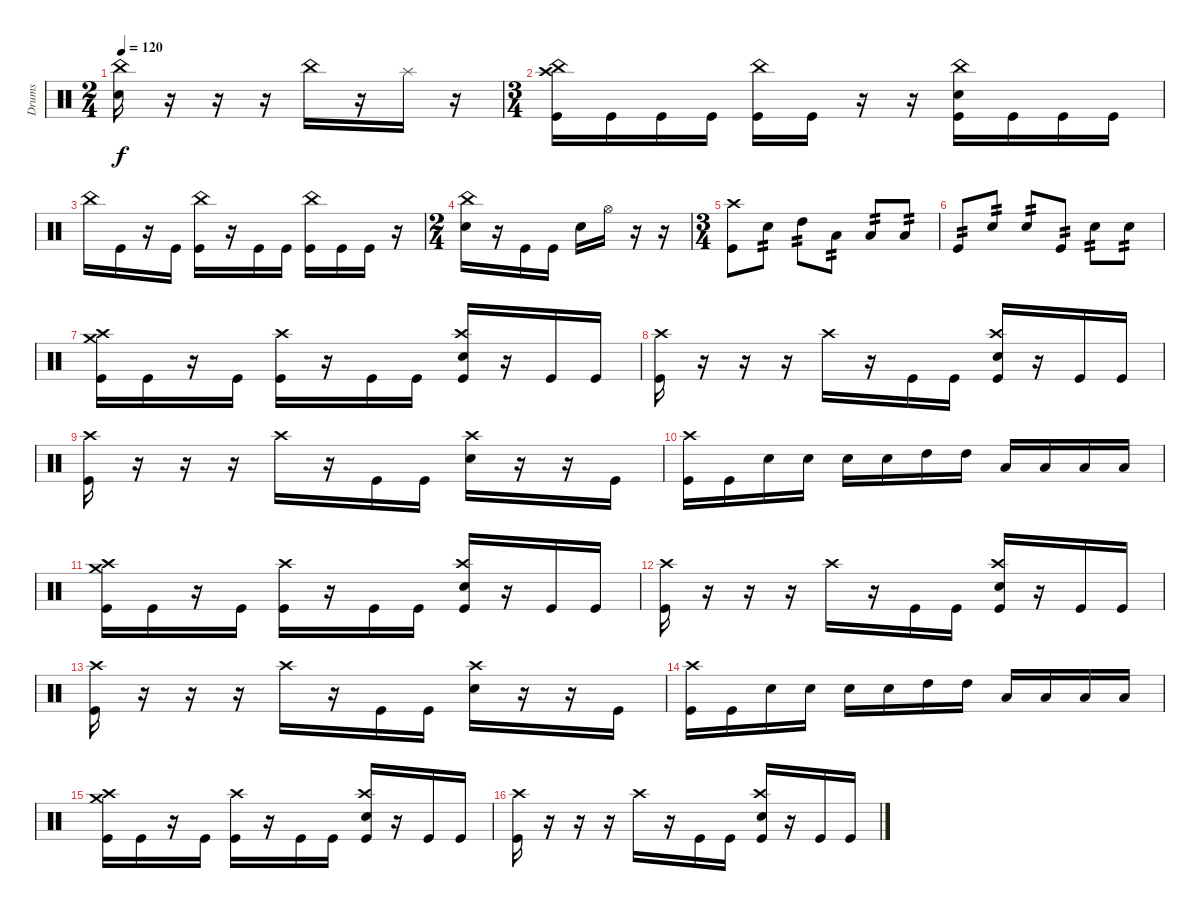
\track ("Drums" "Drums") {instrument percussion}
\staff {score}
\articulation defaults
\ts (2 4)
\tempo 120
\clef neutral
\ks c
("China (hit)" "Snare (hit) 2").16{dy f} r.16 r.16 r.16 "China (hit)".16 r.16 "Splash (hit)".16 r.16 |
\ts (3 4)
("Crash high (hit)" "China (hit)" "Kick (hit)").16 "Kick (hit)".16 "Kick (hit)".16 "Kick (hit)".16 ("China (hit)" "Kick (hit)").16 "Kick (hit)".16 r.16 r.16 ("China (hit)" "Snare (hit) 2" "Kick (hit)").16 "Kick (hit)".16 "Kick (hit)".16 "Kick (hit)".16 |
"China (hit)".16 "Kick (hit)".16 r.16 "Kick (hit)".16 ("China (hit)" "Kick (hit)").16 r.16 "Kick (hit)".16 "Kick (hit)".16 ("China (hit)" "Kick (hit)").16 "Kick (hit)".16 "Kick (hit)".16 r.16 |
\ts (2 4)
("China (hit)" "Snare (hit) 2").16 r.16 "Kick (hit)".16 "Kick (hit)".16 "Snare (hit) 2".16 "Hi-Hat (open)".16 r.16 r.16 |
\ts (3 4)
("Crash high (hit)" "Kick (hit)").8 "Snare (hit) 2".8{tp 2} "High Tom (hit)".8{tp 2} "Low Tom (hit)".8{tp 2} "Low Tom (hit)".8{tp 2} "Low Tom (hit)".8{tp 2} |
"Kick (hit)".8{tp 2} "Snare (hit) 2".8{tp 2} "Snare (hit) 2".8{tp 2} "Kick (hit)".8{tp 2} "Snare (hit) 2".8{tp 2} "Snare (hit) 2".8{tp 2} |
("Crash high (hit)" "Crash medium (hit)" "Kick (hit)").16 "Kick (hit)".16 r.16 "Kick (hit)".16 ("Crash high (hit)" "Kick (hit)").16 r.16 "Kick (hit)".16 "Kick (hit)".16 ("Crash high (hit)" "Snare (hit) 2" "Kick (hit)").16 r.16 "Kick (hit)".16 "Kick (hit)".16 |
("Crash high (hit)" "Kick (hit)").16 r.16 r.16 r.16 "Crash high (hit)".16 r.16 "Kick (hit)".16 "Kick (hit)".16 ("Crash high (hit)" "Snare (hit) 2" "Kick (hit)").16 r.16 "Kick (hit)".16 "Kick (hit)".16 |
("Crash high (hit)" "Kick (hit)").16 r.16 r.16 r.16 "Crash high (hit)".16 r.16 "Kick (hit)".16 "Kick (hit)".16 ("Crash high (hit)" "Snare (hit) 2").16 r.16 r.16 "Kick (hit)".16 |
("Crash high (hit)" "Kick (hit)").16 "Kick (hit)".16 "Snare (hit) 2".16 "Snare (hit) 2".16 "Snare (hit) 2".16 "Snare (hit) 2".16 "High Tom (hit)".16 "High Tom (hit)".16 "Low Tom (hit)".16 "Low Tom (hit)".16 "Low Tom (hit)".16 "Low Tom (hit)".16 |
("Crash high (hit)" "Crash medium (hit)" "Kick (hit)").16 "Kick (hit)".16 r.16 "Kick (hit)".16 ("Crash high (hit)" "Kick (hit)").16 r.16 "Kick (hit)".16 "Kick (hit)".16 ("Crash high (hit)" "Snare (hit) 2" "Kick (hit)").16 r.16 "Kick (hit)".16 "Kick (hit)".16 |
("Crash high (hit)" "Kick (hit)").16 r.16 r.16 r.16 "Crash high (hit)".16 r.16 "Kick (hit)".16 "Kick (hit)".16 ("Crash high (hit)" "Snare (hit) 2" "Kick (hit)").16 r.16 "Kick (hit)".16 "Kick (hit)".16 |
("Crash high (hit)" "Kick (hit)").16 r.16 r.16 r.16 "Crash high (hit)".16 r.16 "Kick (hit)".16 "Kick (hit)".16 ("Crash high (hit)" "Snare (hit) 2").16 r.16 r.16 "Kick (hit)".16 |
("Crash high (hit)" "Kick (hit)").16 "Kick (hit)".16 "Snare (hit) 2".16 "Snare (hit) 2".16 "Snare (hit) 2".16 "Snare (hit) 2".16 "High Tom (hit)".16 "High Tom (hit)".16 "Low Tom (hit)".16 "Low Tom (hit)".16 "Low Tom (hit)".16 "Low Tom (hit)".16 |
("Crash high (hit)" "Crash medium (hit)" "Kick (hit)").16 "Kick (hit)".16 r.16 "Kick (hit)".16 ("Crash high (hit)" "Kick (hit)").16 r.16 "Kick (hit)".16 "Kick (hit)".16 ("Crash high (hit)" "Snare (hit) 2" "Kick (hit)").16 r.16 "Kick (hit)".16 "Kick (hit)".16 |
("Crash high (hit)" "Kick (hit)").16 r.16 r.16 r.16 "Crash high (hit)".16 r.16 "Kick (hit)".16 "Kick (hit)".16 ("Crash high (hit)" "Snare (hit) 2" "Kick (hit)").16 r.16 "Kick (hit)".16 "Kick (hit)".16
